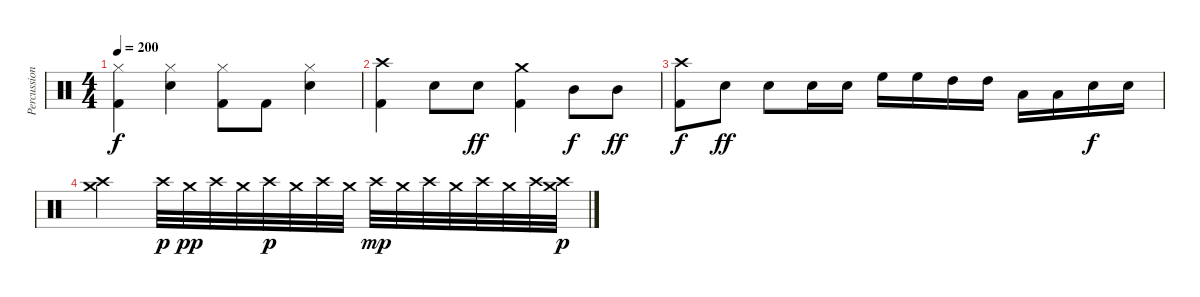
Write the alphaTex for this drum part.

\track ("Percussions 1" "Percussion") {instrument percussion}
\staff {score}
\articulation defaults
\ts (4 4)
\tempo 200
\clef neutral
\ks c
("Hi-Hat (closed)" "Kick (hit) 2").4{dy f} ("Hi-Hat (closed)" "Snare (hit) 2").4 ("Hi-Hat (closed)" "Kick (hit) 2").8 "Kick (hit) 2".8 ("Hi-Hat (closed)" "Snare (hit) 2").4 |
("Crash high (hit)" "Kick (hit) 2").4 "Snare (hit) 2".8 "Snare (hit) 2".8{dy ff} ("Crash medium (hit)" "Kick (hit) 2").4 "Mid Tom (hit)".8{dy f} "Mid Tom (hit)".8{dy ff} |
("Crash high (hit)" "Kick (hit) 2").8{dy f} "Snare (hit) 2".8{dy ff} "Snare (hit) 2".8 "Snare (hit) 2".16 "Snare (hit) 2".16 "High Floor Tom (hit)".16 "High Floor Tom (hit)".16 "High Tom (hit)".16 "High Tom (hit)".16 "Low Tom (hit)".16 "Low Tom (hit)".16 "Snare (hit) 2".16{dy f} "Snare (hit) 2".16 |
("Crash high (hit)" "Crash medium (hit)").2 "Crash high (hit)".32{dy p} "Crash medium (hit)".32{dy pp} "Crash high (hit)".32 "Crash medium (hit)".32 "Crash high (hit)".32{dy p} "Crash medium (hit)".32 "Crash high (hit)".32 "Crash medium (hit)".32 "Crash high (hit)".32{dy mp} "Crash medium (hit)".32 "Crash high (hit)".32 "Crash medium (hit)".32 "Crash high (hit)".32 "Crash medium (hit)".32 "Crash high (hit)".32 ("Crash medium (hit)" "Crash high (hit)").32{dy p}
